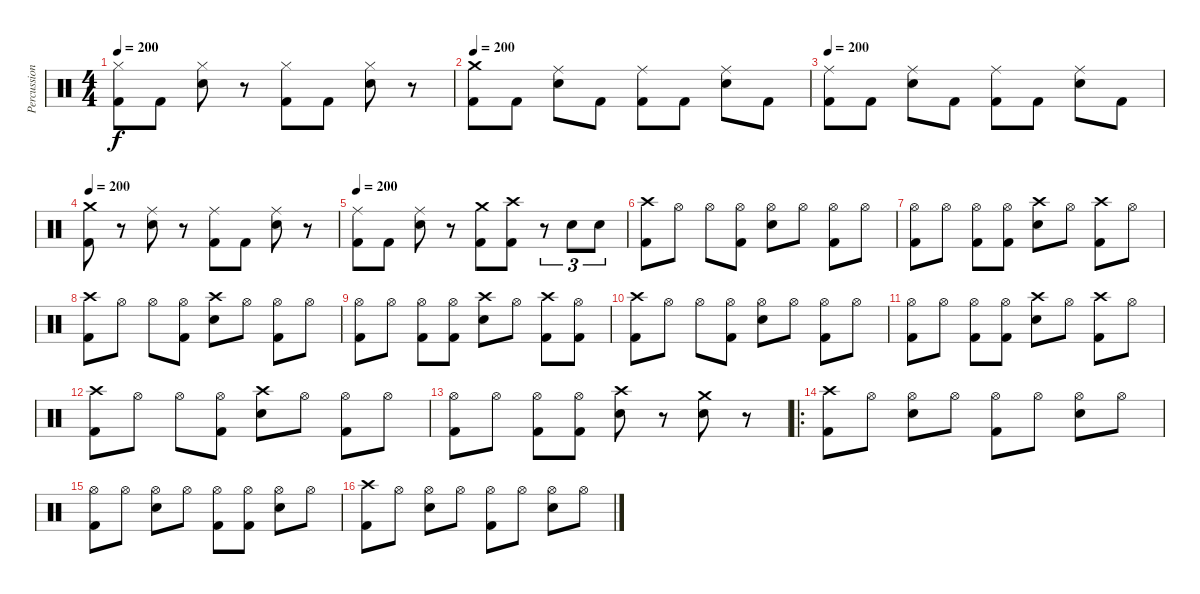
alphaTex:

\track ("Percussion" "Percussion") {instrument percussion}
\staff {score}
\articulation defaults
\ts (4 4)
\tempo 200
\clef neutral
\ks c
("Kick (hit) 2" "Hi-Hat (closed)").8{dy f} "Kick (hit) 2".8 ("Snare (hit) 2" "Hi-Hat (closed)").8 r.8 ("Kick (hit) 2" "Hi-Hat (closed)").8 "Kick (hit) 2".8 ("Snare (hit) 2" "Hi-Hat (closed)").8 r.8 |
\tempo 200
("Kick (hit) 2" "Crash medium (hit)").8 "Kick (hit) 2".8 ("Ride (middle)" "Snare (hit) 2").8 "Kick (hit) 2".8 ("Kick (hit) 2" "Ride (middle)").8 "Kick (hit) 2".8 ("Snare (hit) 2" "Ride (middle)").8 "Kick (hit) 2".8 |
\tempo 200
("Kick (hit) 2" "Ride (middle)").8 "Kick (hit) 2".8 ("Snare (hit) 2" "Ride (middle)").8 "Kick (hit) 2".8 ("Kick (hit) 2" "Ride (middle)").8 "Kick (hit) 2".8 ("Snare (hit) 2" "Ride (middle)").8 "Kick (hit) 2".8 |
\tempo 200
("Kick (hit) 2" "Crash medium (hit)").8 r.8 ("Ride (middle)" "Snare (hit) 2").8 r.8 ("Kick (hit) 2" "Ride (middle)").8 "Kick (hit) 2".8 ("Snare (hit) 2" "Ride (middle)").8 r.8 |
\tempo 200
("Kick (hit) 2" "Ride (middle)").8 "Kick (hit) 2".8 ("Snare (hit) 2" "Ride (middle)").8 r.8 ("Kick (hit) 2" "Crash medium (hit)").8 ("Crash high (hit)" "Kick (hit) 2").8 r.8{tu (3 2)} "Snare (hit) 2".8{tu (3 2)} "Snare (hit) 2".8{tu (3 2)} |
("Crash high (hit)" "Kick (hit) 2").8 "Hi-Hat (open)".8 "Hi-Hat (open)".8 ("Hi-Hat (open)" "Kick (hit) 2").8 ("Hi-Hat (open)" "Snare (hit) 2").8 "Hi-Hat (open)".8 ("Hi-Hat (open)" "Kick (hit) 2").8 "Hi-Hat (open)".8 |
("Hi-Hat (open)" "Kick (hit) 2").8 "Hi-Hat (open)".8 ("Hi-Hat (open)" "Kick (hit) 2").8 ("Hi-Hat (open)" "Kick (hit) 2").8 ("Crash high (hit)" "Snare (hit) 2").8 "Hi-Hat (open)".8 ("Crash high (hit)" "Kick (hit) 2").8 "Hi-Hat (open)".8 |
("Crash high (hit)" "Kick (hit) 2").8 "Hi-Hat (open)".8 "Hi-Hat (open)".8 ("Hi-Hat (open)" "Kick (hit) 2").8 ("Crash high (hit)" "Snare (hit) 2").8 "Hi-Hat (open)".8 ("Hi-Hat (open)" "Kick (hit) 2").8 "Hi-Hat (open)".8 |
("Hi-Hat (open)" "Kick (hit) 2").8 "Hi-Hat (open)".8 ("Hi-Hat (open)" "Kick (hit) 2").8 ("Hi-Hat (open)" "Kick (hit) 2").8 ("Crash high (hit)" "Snare (hit) 2").8 "Hi-Hat (open)".8 ("Crash high (hit)" "Kick (hit) 2").8 ("Hi-Hat (open)" "Kick (hit) 2").8 |
("Crash high (hit)" "Kick (hit) 2").8 "Hi-Hat (open)".8 "Hi-Hat (open)".8 ("Hi-Hat (open)" "Kick (hit) 2").8 ("Hi-Hat (open)" "Snare (hit) 2").8 "Hi-Hat (open)".8 ("Hi-Hat (open)" "Kick (hit) 2").8 "Hi-Hat (open)".8 |
("Hi-Hat (open)" "Kick (hit) 2").8 "Hi-Hat (open)".8 ("Hi-Hat (open)" "Kick (hit) 2").8 ("Hi-Hat (open)" "Kick (hit) 2").8 ("Crash high (hit)" "Snare (hit) 2").8 "Hi-Hat (open)".8 ("Crash high (hit)" "Kick (hit) 2").8 "Hi-Hat (open)".8 |
("Crash high (hit)" "Kick (hit) 2").8 "Hi-Hat (open)".8 "Hi-Hat (open)".8 ("Hi-Hat (open)" "Kick (hit) 2").8 ("Crash high (hit)" "Snare (hit) 2").8 "Hi-Hat (open)".8 ("Hi-Hat (open)" "Kick (hit) 2").8 "Hi-Hat (open)".8 |
("Hi-Hat (open)" "Kick (hit) 2").8 "Hi-Hat (open)".8 ("Hi-Hat (open)" "Kick (hit) 2").8 ("Hi-Hat (open)" "Kick (hit) 2").8 ("Crash high (hit)" "Snare (hit) 2").8 r.8 ("Crash medium (hit)" "Snare (hit) 2").8 r.8 |
\ro
("Crash high (hit)" "Kick (hit) 2").8 "Hi-Hat (open)".8 ("Hi-Hat (open)" "Snare (hit) 2").8 "Hi-Hat (open)".8 ("Hi-Hat (open)" "Kick (hit) 2").8 "Hi-Hat (open)".8 ("Hi-Hat (open)" "Snare (hit) 2").8 "Hi-Hat (open)".8 |
("Hi-Hat (open)" "Kick (hit) 2").8 "Hi-Hat (open)".8 ("Hi-Hat (open)" "Snare (hit) 2").8 "Hi-Hat (open)".8 ("Hi-Hat (open)" "Kick (hit) 2").8 ("Hi-Hat (open)" "Kick (hit) 2").8 ("Hi-Hat (open)" "Snare (hit) 2").8 "Hi-Hat (open)".8 |
("Crash high (hit)" "Kick (hit) 2").8 "Hi-Hat (open)".8 ("Hi-Hat (open)" "Snare (hit) 2").8 "Hi-Hat (open)".8 ("Hi-Hat (open)" "Kick (hit) 2").8 "Hi-Hat (open)".8 ("Hi-Hat (open)" "Snare (hit) 2").8 "Hi-Hat (open)".8
